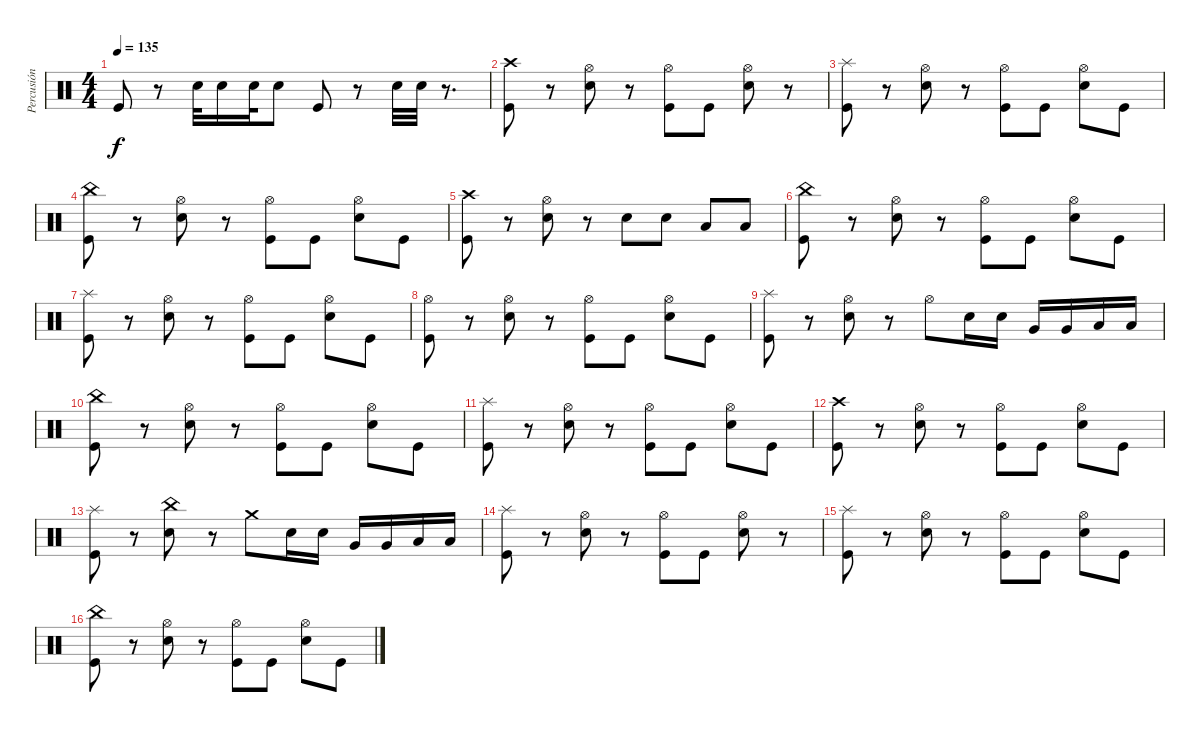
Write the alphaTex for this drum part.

\track ("Percusión" "Percusión") {instrument percussion}
\staff {score}
\articulation defaults
\ts (4 4)
\tempo 135
\clef neutral
\ks c "Kick (hit)".8{dy f}
r.8 "Electric Snare (hit)".32 "Electric Snare (hit)".16 "Electric Snare (hit)".32 "Electric Snare (hit)".8 "Kick (hit)".8 r.8 "Electric Snare (hit)".32 "Electric Snare (hit)".32 r.8{d} |
("Kick (hit)" "Crash high (hit)").8 r.8 ("Electric Snare (hit)" "Hi-Hat (open)").8 r.8 ("Kick (hit)" "Hi-Hat (open)").8 "Kick (hit)".8 ("Electric Snare (hit)" "Hi-Hat (open)").8 r.8 |
("Kick (hit)" "Splash (hit)").8 r.8 ("Electric Snare (hit)" "Hi-Hat (open)").8 r.8 ("Kick (hit)" "Hi-Hat (open)").8 "Kick (hit)".8 ("Electric Snare (hit)" "Hi-Hat (open)").8 "Kick (hit)".8 |
("Kick (hit)" "China (hit)").8 r.8 ("Electric Snare (hit)" "Hi-Hat (open)").8 r.8 ("Kick (hit)" "Hi-Hat (open)").8 "Kick (hit)".8 ("Electric Snare (hit)" "Hi-Hat (open)").8 "Kick (hit)".8 |
("Kick (hit)" "Crash high (hit)").8 r.8 ("Electric Snare (hit)" "Hi-Hat (open)").8 r.8 "Electric Snare (hit)".8 "Electric Snare (hit)".8 "Low Tom (hit)".8 "Low Tom (hit)".8 |
("Kick (hit)" "China (hit)").8 r.8 ("Electric Snare (hit)" "Hi-Hat (open)").8 r.8 ("Kick (hit)" "Hi-Hat (open)").8 "Kick (hit)".8 ("Electric Snare (hit)" "Hi-Hat (open)").8 "Kick (hit)".8 |
("Kick (hit)" "Splash (hit)").8 r.8 ("Electric Snare (hit)" "Hi-Hat (open)").8 r.8 ("Kick (hit)" "Hi-Hat (open)").8 "Kick (hit)".8 ("Electric Snare (hit)" "Hi-Hat (open)").8 "Kick (hit)".8 |
("Kick (hit)" "Hi-Hat (open)").8 r.8 ("Electric Snare (hit)" "Hi-Hat (open)").8 r.8 ("Kick (hit)" "Hi-Hat (open)").8 "Kick (hit)".8 ("Electric Snare (hit)" "Hi-Hat (open)").8 "Kick (hit)".8 |
("Kick (hit)" "Splash (hit)").8 r.8 ("Electric Snare (hit)" "Hi-Hat (open)").8 r.8 "Hi-Hat (open)".8 "Electric Snare (hit)".16 "Electric Snare (hit)".16 "Very Low Tom (hit)".16 "Very Low Tom (hit)".16 "Low Tom (hit)".16 "Low Tom (hit)".16 |
("Kick (hit)" "China (hit)").8 r.8 ("Electric Snare (hit)" "Hi-Hat (open)").8 r.8 ("Kick (hit)" "Hi-Hat (open)").8 "Kick (hit)".8 ("Electric Snare (hit)" "Hi-Hat (open)").8 "Kick (hit)".8 |
("Kick (hit)" "Splash (hit)").8 r.8 ("Electric Snare (hit)" "Hi-Hat (open)").8 r.8 ("Kick (hit)" "Hi-Hat (open)").8 "Kick (hit)".8 ("Electric Snare (hit)" "Hi-Hat (open)").8 "Kick (hit)".8 |
("Kick (hit)" "Crash high (hit)").8 r.8 ("Electric Snare (hit)" "Hi-Hat (open)").8 r.8 ("Kick (hit)" "Hi-Hat (open)").8 "Kick (hit)".8 ("Electric Snare (hit)" "Hi-Hat (open)").8 "Kick (hit)".8 |
("Kick (hit)" "Splash (hit)").8 r.8 ("Electric Snare (hit)" "China (hit)").8 r.8 "Crash medium (hit)".8 "Electric Snare (hit)".16 "Electric Snare (hit)".16 "Very Low Tom (hit)".16 "Very Low Tom (hit)".16 "Low Tom (hit)".16 "Low Tom (hit)".16 |
("Kick (hit)" "Splash (hit)").8 r.8 ("Electric Snare (hit)" "Hi-Hat (open)").8 r.8 ("Kick (hit)" "Hi-Hat (open)").8 "Kick (hit)".8 ("Electric Snare (hit)" "Hi-Hat (open)").8 r.8 |
("Kick (hit)" "Splash (hit)").8 r.8 ("Electric Snare (hit)" "Hi-Hat (open)").8 r.8 ("Kick (hit)" "Hi-Hat (open)").8 "Kick (hit)".8 ("Electric Snare (hit)" "Hi-Hat (open)").8 "Kick (hit)".8 |
("Kick (hit)" "China (hit)").8 r.8 ("Electric Snare (hit)" "Hi-Hat (open)").8 r.8 ("Kick (hit)" "Hi-Hat (open)").8 "Kick (hit)".8 ("Electric Snare (hit)" "Hi-Hat (open)").8 "Kick (hit)".8
